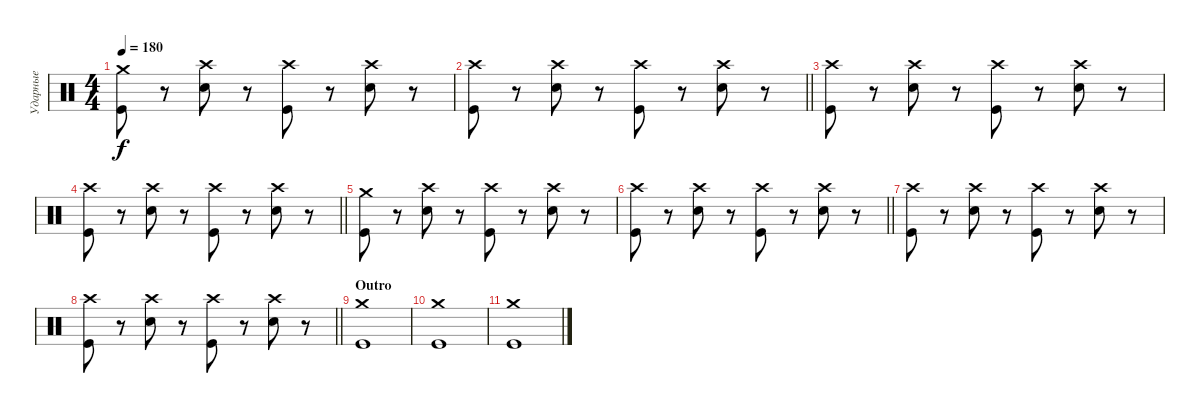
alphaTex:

\track ("Ударные" "Ударные") {instrument percussion}
\staff {score}
\articulation defaults
\ts (4 4)
\section ("" " ")
\tempo 180
\clef neutral
\ks c
("Crash medium (hit)" "Kick (hit)").8{dy f} r.8 ("Crash high (hit)" "Electric Snare (hit)").8 r.8 ("Crash high (hit)" "Kick (hit)").8 r.8 ("Crash high (hit)" "Electric Snare (hit)").8 r.8 |
\barLineRight lightlight
("Crash high (hit)" "Kick (hit)").8 r.8 ("Crash high (hit)" "Electric Snare (hit)").8 r.8 ("Crash high (hit)" "Kick (hit)").8 r.8 ("Crash high (hit)" "Electric Snare (hit)").8 r.8 |
("Crash high (hit)" "Kick (hit)").8 r.8 ("Crash high (hit)" "Electric Snare (hit)").8 r.8 ("Crash high (hit)" "Kick (hit)").8 r.8 ("Crash high (hit)" "Electric Snare (hit)").8 r.8 |
\barLineRight lightlight
("Crash high (hit)" "Kick (hit)").8 r.8 ("Crash high (hit)" "Electric Snare (hit)").8 r.8 ("Crash high (hit)" "Kick (hit)").8 r.8 ("Crash high (hit)" "Electric Snare (hit)").8 r.8 |
("Crash medium (hit)" "Kick (hit)").8 r.8 ("Crash high (hit)" "Electric Snare (hit)").8 r.8 ("Crash high (hit)" "Kick (hit)").8 r.8 ("Crash high (hit)" "Electric Snare (hit)").8 r.8 |
\barLineRight lightlight
("Crash high (hit)" "Kick (hit)").8 r.8 ("Crash high (hit)" "Electric Snare (hit)").8 r.8 ("Crash high (hit)" "Kick (hit)").8 r.8 ("Crash high (hit)" "Electric Snare (hit)").8 r.8 |
("Crash high (hit)" "Kick (hit)").8 r.8 ("Crash high (hit)" "Electric Snare (hit)").8 r.8 ("Crash high (hit)" "Kick (hit)").8 r.8 ("Crash high (hit)" "Electric Snare (hit)").8 r.8 |
\barLineRight lightlight
("Crash high (hit)" "Kick (hit)").8 r.8 ("Crash high (hit)" "Electric Snare (hit)").8 r.8 ("Crash high (hit)" "Kick (hit)").8 r.8 ("Crash high (hit)" "Electric Snare (hit)").8 r.8 |
\section ("" "Outro")
("Crash medium (hit)" "Kick (hit)").1 |
("Crash medium (hit)" "Kick (hit)").1 |
("Crash medium (hit)" "Kick (hit)").1
